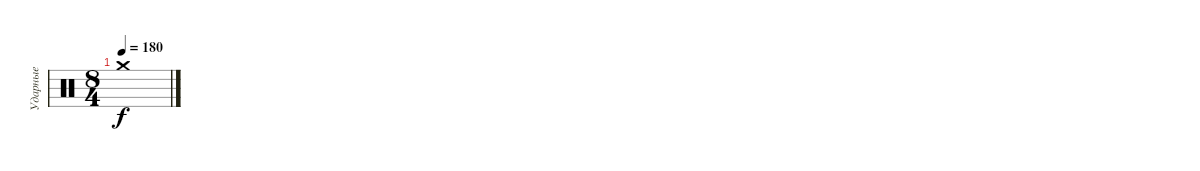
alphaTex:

\track ("Ударные" "Ударные") {instrument percussion}
\staff {score}
\articulation defaults
\ts (8 4)
\tempo 180
\clef neutral
\ks c "Crash medium (hit)".1{dy f}
